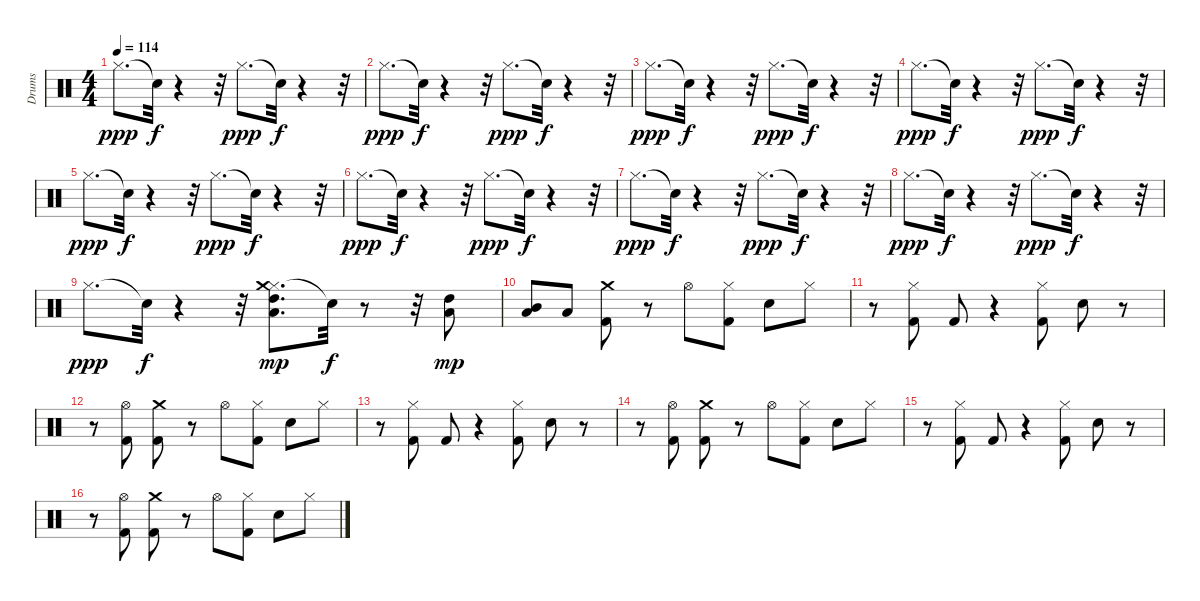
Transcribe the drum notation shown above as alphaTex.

\track ("Drums" "Drums") {instrument percussion}
\staff {score}
\articulation defaults
\ts (4 4)
\tempo 114
\clef neutral
\ks c "Hi-Hat (closed)".8{d dy ppp} "Snare (hit)"{t}.32{dy f}
r.4 r.32 "Hi-Hat (closed)".8{d dy ppp} "Snare (hit)"{t}.32{dy f} r.4 r.32 |
"Hi-Hat (closed)".8{d dy ppp} "Snare (hit)"{t}.32{dy f} r.4 r.32 "Hi-Hat (closed)".8{d dy ppp} "Snare (hit)"{t}.32{dy f} r.4 r.32 |
"Hi-Hat (closed)".8{d dy ppp} "Snare (hit)"{t}.32{dy f} r.4 r.32 "Hi-Hat (closed)".8{d dy ppp} "Snare (hit)"{t}.32{dy f} r.4 r.32 |
"Hi-Hat (closed)".8{d dy ppp} "Snare (hit)"{t}.32{dy f} r.4 r.32 "Hi-Hat (closed)".8{d dy ppp} "Snare (hit)"{t}.32{dy f} r.4 r.32 |
"Hi-Hat (closed)".8{d dy ppp} "Snare (hit)"{t}.32{dy f} r.4 r.32 "Hi-Hat (closed)".8{d dy ppp} "Snare (hit)"{t}.32{dy f} r.4 r.32 |
"Hi-Hat (closed)".8{d dy ppp} "Snare (hit)"{t}.32{dy f} r.4 r.32 "Hi-Hat (closed)".8{d dy ppp} "Snare (hit)"{t}.32{dy f} r.4 r.32 |
"Hi-Hat (closed)".8{d dy ppp} "Snare (hit)"{t}.32{dy f} r.4 r.32 "Hi-Hat (closed)".8{d dy ppp} "Snare (hit)"{t}.32{dy f} r.4 r.32 |
"Hi-Hat (closed)".8{d dy ppp} "Snare (hit)"{t}.32{dy f} r.4 r.32 "Hi-Hat (closed)".8{d dy ppp} "Snare (hit)"{t}.32{dy f} r.4 r.32 |
"Hi-Hat (closed)".8{d dy ppp} "Snare (hit)"{t}.32{dy f} r.4 r.32 ("Hi-Hat (closed)" "Low Tom (hit)" "High Tom (hit)" "Crash medium (hit)").8{d dy mp} "Snare (hit)"{t}.32{dy f} r.8 r.32 ("Low Tom (hit)" "High Tom (hit)").8{dy mp} |
("Low Tom (hit)" "Mid Tom (hit)").8 "Low Tom (hit)".8 ("Kick (hit) 2" "Crash medium (hit)").8 r.8 "Hi-Hat (open)".8 ("Kick (hit) 2" "Hi-Hat (closed)").8 "Snare (hit) 2".8 "Hi-Hat (closed)".8 |
r.8 ("Kick (hit) 2" "Hi-Hat (closed)").8 "Kick (hit) 2".8 r.4 ("Kick (hit) 2" "Hi-Hat (closed)").8 "Snare (hit) 2".8 r.8 |
r.8 ("Kick (hit) 2" "Hi-Hat (open)").8 ("Kick (hit) 2" "Crash medium (hit)").8 r.8 "Hi-Hat (open)".8 ("Kick (hit) 2" "Hi-Hat (closed)").8 "Snare (hit) 2".8 "Hi-Hat (closed)".8 |
r.8 ("Kick (hit) 2" "Hi-Hat (closed)").8 "Kick (hit) 2".8 r.4 ("Kick (hit) 2" "Hi-Hat (closed)").8 "Snare (hit) 2".8 r.8 |
r.8 ("Kick (hit) 2" "Hi-Hat (open)").8 ("Kick (hit) 2" "Crash medium (hit)").8 r.8 "Hi-Hat (open)".8 ("Kick (hit) 2" "Hi-Hat (closed)").8 "Snare (hit) 2".8 "Hi-Hat (closed)".8 |
r.8 ("Kick (hit) 2" "Hi-Hat (closed)").8 "Kick (hit) 2".8 r.4 ("Kick (hit) 2" "Hi-Hat (closed)").8 "Snare (hit) 2".8 r.8 |
r.8 ("Kick (hit) 2" "Hi-Hat (open)").8 ("Kick (hit) 2" "Crash medium (hit)").8 r.8 "Hi-Hat (open)".8 ("Kick (hit) 2" "Hi-Hat (closed)").8 "Snare (hit) 2".8 "Hi-Hat (closed)".8
